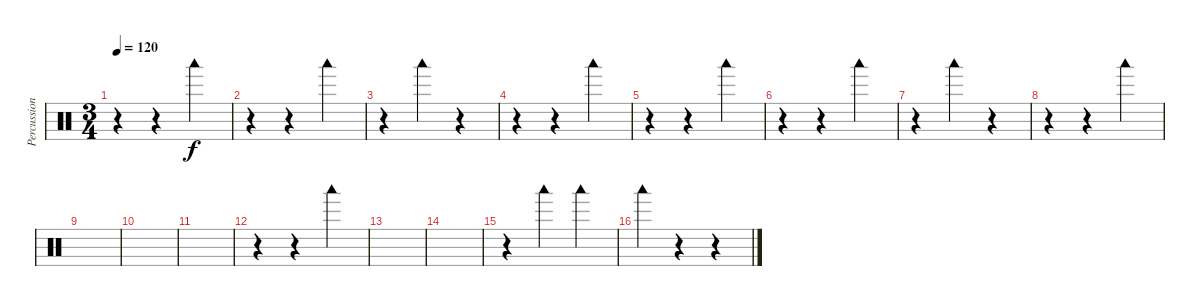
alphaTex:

\track ("Percussion" "Percussion") {instrument percussion}
\staff {score}
\articulation defaults
\ts (3 4)
\tempo 120
\clef neutral
\ks c
r.4{dy f} r.4 "Woodblock low (hit)".4 |
r.4 r.4 "Woodblock low (hit)".4 |
r.4 "Woodblock low (hit)".4 r.4 |
r.4 r.4 "Woodblock low (hit)".4 |
r.4 r.4 "Woodblock low (hit)".4 |
r.4 r.4 "Woodblock low (hit)".4 |
r.4 "Woodblock low (hit)".4 r.4 |
r.4 r.4 "Woodblock low (hit)".4 |
|
|
|
r.4 r.4 "Woodblock low (hit)".4 |
|
|
r.4 "Woodblock low (hit)".4 "Woodblock low (hit)".4 |
"Woodblock low (hit)".4 r.4 r.4
